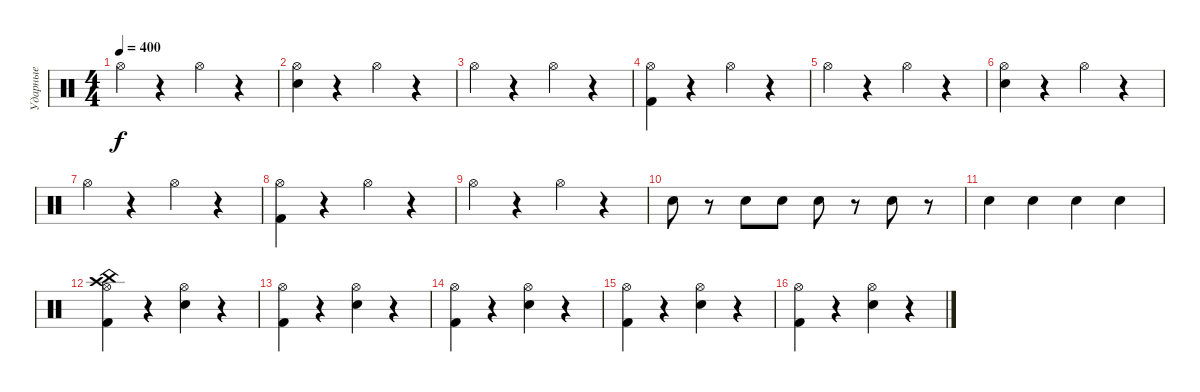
\track ("Ударные" "Ударные") {instrument percussion}
\staff {score}
\articulation defaults
\ts (4 4)
\tempo 400
\clef neutral
\ks c "Hi-Hat (open)".4{dy f}
r.4 "Hi-Hat (open)".4 r.4 |
("Electric Snare (hit)" "Hi-Hat (open)").4 r.4 "Hi-Hat (open)".4 r.4 |
"Hi-Hat (open)".4 r.4 "Hi-Hat (open)".4 r.4 |
("Hi-Hat (open)" "Kick (hit) 2").4 r.4 "Hi-Hat (open)".4 r.4 |
"Hi-Hat (open)".4 r.4 "Hi-Hat (open)".4 r.4 |
("Electric Snare (hit)" "Hi-Hat (open)").4 r.4 "Hi-Hat (open)".4 r.4 |
"Hi-Hat (open)".4 r.4 "Hi-Hat (open)".4 r.4 |
("Hi-Hat (open)" "Kick (hit) 2").4 r.4 "Hi-Hat (open)".4 r.4 |
"Hi-Hat (open)".4 r.4 "Hi-Hat (open)".4 r.4 |
"Electric Snare (hit)".8 r.8 "Electric Snare (hit)".8 "Electric Snare (hit)".8 "Electric Snare (hit)".8 r.8 "Electric Snare (hit)".8 r.8 |
"Electric Snare (hit)".4 "Electric Snare (hit)".4 "Snare (hit) 2".4 "Snare (hit) 2".4 |
("Kick (hit) 2" "Hi-Hat (open)" "Crash high (hit)" "China (hit)").4 r.4 ("Electric Snare (hit)" "Hi-Hat (open)").4 r.4 |
("Kick (hit) 2" "Hi-Hat (open)").4 r.4 ("Electric Snare (hit)" "Hi-Hat (open)").4 r.4 |
("Kick (hit) 2" "Hi-Hat (open)").4 r.4 ("Electric Snare (hit)" "Hi-Hat (open)").4 r.4 |
("Kick (hit) 2" "Hi-Hat (open)").4 r.4 ("Electric Snare (hit)" "Hi-Hat (open)").4 r.4 |
("Kick (hit) 2" "Hi-Hat (open)").4 r.4 ("Electric Snare (hit)" "Hi-Hat (open)").4 r.4
